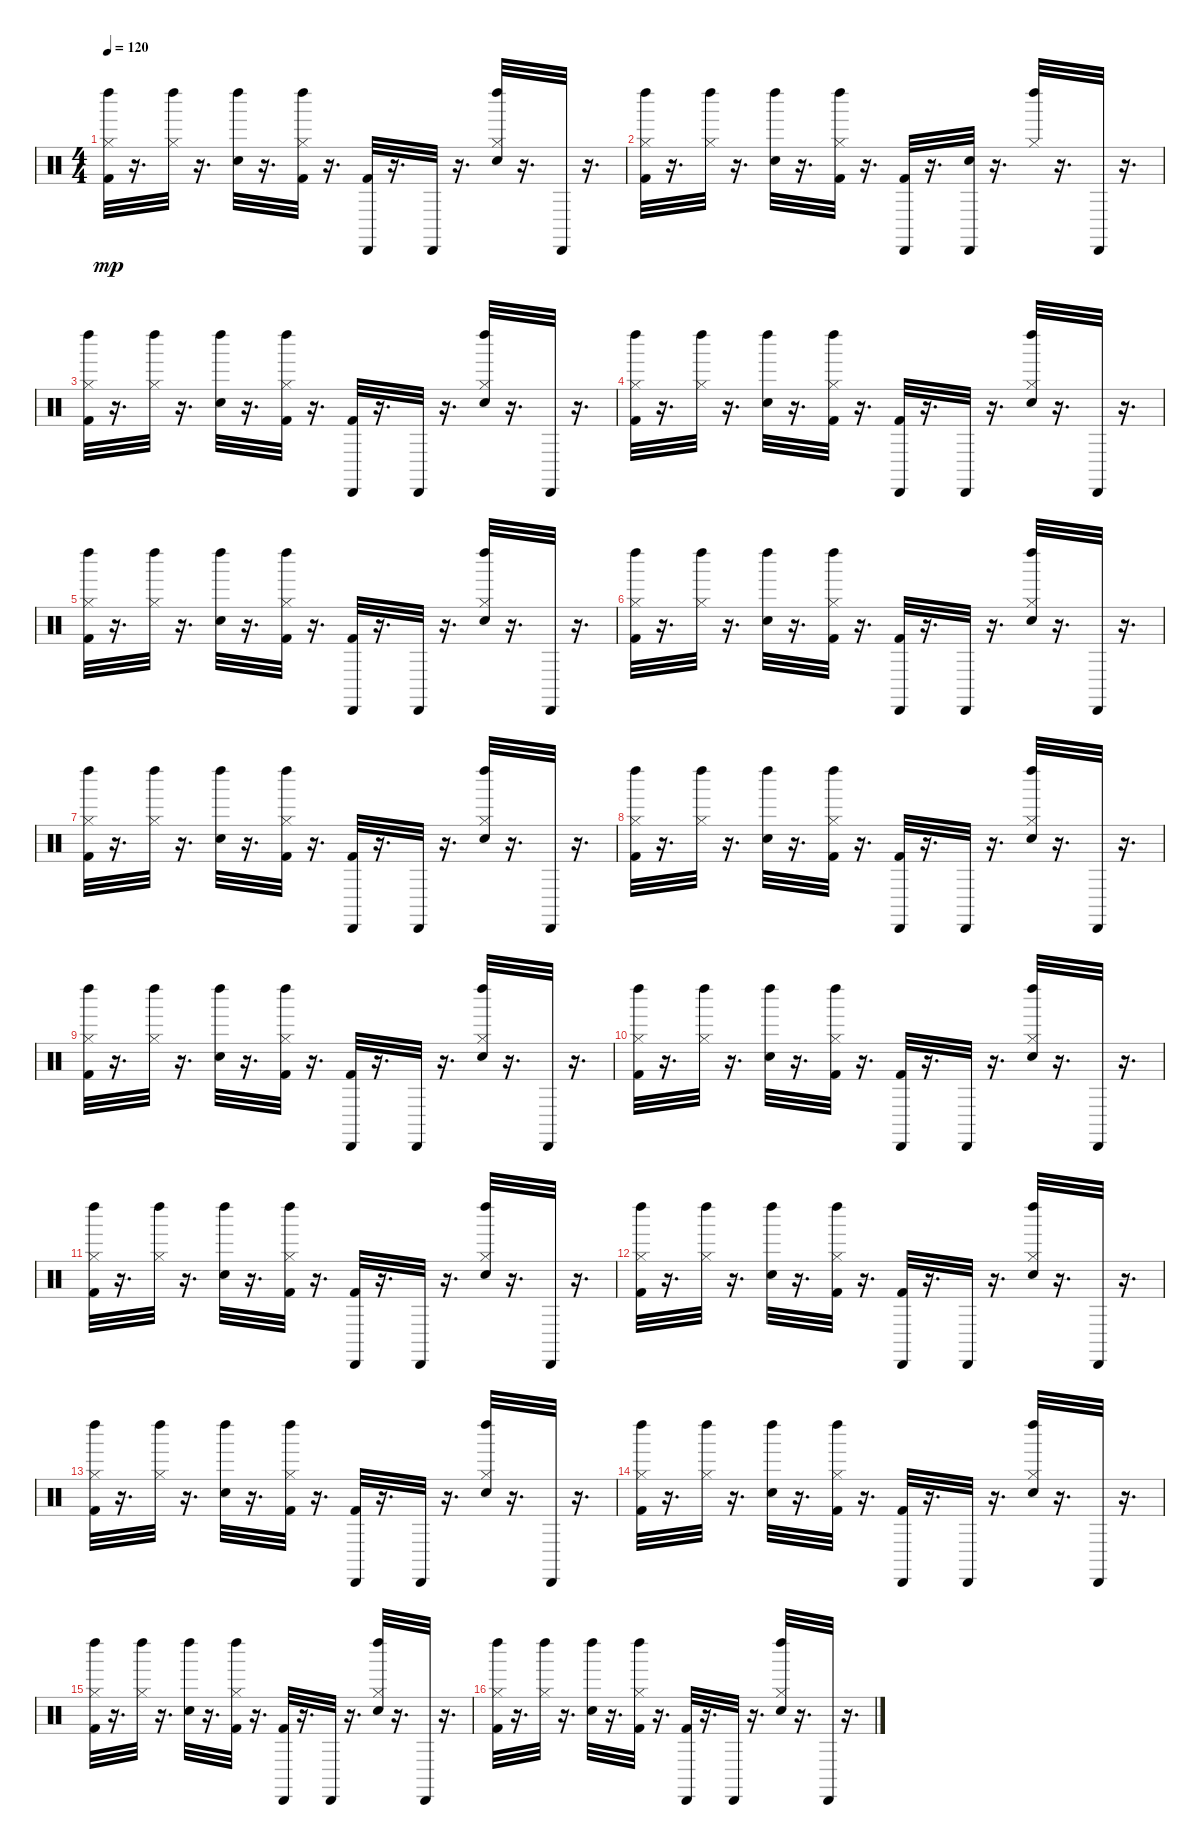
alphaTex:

\track "" {instrument percussion}
\staff {score}
\articulation defaults
\ts (4 4)
\tempo 120
\clef neutral
\ks c
("Left Maraca (hit)" "Hi-Hat (closed)" "Kick (hit) 2").32{dy mp} r.16{d} ("Left Maraca (hit)" "Hi-Hat (closed)").32 r.16{d} ("Left Maraca (hit)" "Electric Snare (hit)").32 r.16{d} ("Kick (hit) 2" "Left Maraca (hit)" "Hi-Hat (closed)").32 r.16{d} ("Kick (hit) 2" "Cabasa (hit)").32 r.16{d} "Cabasa (hit)".32 r.16{d} ("Hi-Hat (closed)" "Left Maraca (hit)" "Electric Snare (hit)").32 r.16{d} "Cabasa (hit)".32 r.16{d} |
("Left Maraca (hit)" "Hi-Hat (closed)" "Kick (hit) 2").32 r.16{d} ("Left Maraca (hit)" "Hi-Hat (closed)").32 r.16{d} ("Left Maraca (hit)" "Electric Snare (hit)").32 r.16{d} ("Kick (hit) 2" "Left Maraca (hit)" "Hi-Hat (closed)").32 r.16{d} ("Kick (hit) 2" "Cabasa (hit)").32 r.16{d} ("Cabasa (hit)" "Electric Snare (hit)").32 r.16{d} ("Hi-Hat (closed)" "Left Maraca (hit)").32 r.16{d} "Cabasa (hit)".32 r.16{d} |
("Left Maraca (hit)" "Hi-Hat (closed)" "Kick (hit) 2").32 r.16{d} ("Left Maraca (hit)" "Hi-Hat (closed)").32 r.16{d} ("Left Maraca (hit)" "Electric Snare (hit)").32 r.16{d} ("Kick (hit) 2" "Left Maraca (hit)" "Hi-Hat (closed)").32 r.16{d} ("Kick (hit) 2" "Cabasa (hit)").32 r.16{d} "Cabasa (hit)".32 r.16{d} ("Hi-Hat (closed)" "Left Maraca (hit)" "Electric Snare (hit)").32 r.16{d} "Cabasa (hit)".32 r.16{d} |
("Left Maraca (hit)" "Hi-Hat (closed)" "Kick (hit) 2").32 r.16{d} ("Left Maraca (hit)" "Hi-Hat (closed)").32 r.16{d} ("Left Maraca (hit)" "Electric Snare (hit)").32 r.16{d} ("Kick (hit) 2" "Left Maraca (hit)" "Hi-Hat (closed)").32 r.16{d} ("Kick (hit) 2" "Cabasa (hit)").32 r.16{d} "Cabasa (hit)".32 r.16{d} ("Hi-Hat (closed)" "Left Maraca (hit)" "Electric Snare (hit)").32 r.16{d} "Cabasa (hit)".32 r.16{d} |
("Left Maraca (hit)" "Hi-Hat (closed)" "Kick (hit) 2").32 r.16{d} ("Left Maraca (hit)" "Hi-Hat (closed)").32 r.16{d} ("Left Maraca (hit)" "Electric Snare (hit)").32 r.16{d} ("Kick (hit) 2" "Left Maraca (hit)" "Hi-Hat (closed)").32 r.16{d} ("Kick (hit) 2" "Cabasa (hit)").32 r.16{d} "Cabasa (hit)".32 r.16{d} ("Hi-Hat (closed)" "Left Maraca (hit)" "Electric Snare (hit)").32 r.16{d} "Cabasa (hit)".32 r.16{d} |
("Left Maraca (hit)" "Hi-Hat (closed)" "Kick (hit) 2").32 r.16{d} ("Left Maraca (hit)" "Hi-Hat (closed)").32 r.16{d} ("Left Maraca (hit)" "Electric Snare (hit)").32 r.16{d} ("Kick (hit) 2" "Left Maraca (hit)" "Hi-Hat (closed)").32 r.16{d} ("Kick (hit) 2" "Cabasa (hit)").32 r.16{d} "Cabasa (hit)".32 r.16{d} ("Hi-Hat (closed)" "Left Maraca (hit)" "Electric Snare (hit)").32 r.16{d} "Cabasa (hit)".32 r.16{d} |
("Left Maraca (hit)" "Hi-Hat (closed)" "Kick (hit) 2").32 r.16{d} ("Left Maraca (hit)" "Hi-Hat (closed)").32 r.16{d} ("Left Maraca (hit)" "Electric Snare (hit)").32 r.16{d} ("Kick (hit) 2" "Left Maraca (hit)" "Hi-Hat (closed)").32 r.16{d} ("Kick (hit) 2" "Cabasa (hit)").32 r.16{d} "Cabasa (hit)".32 r.16{d} ("Hi-Hat (closed)" "Left Maraca (hit)" "Electric Snare (hit)").32 r.16{d} "Cabasa (hit)".32 r.16{d} |
("Left Maraca (hit)" "Hi-Hat (closed)" "Kick (hit) 2").32 r.16{d} ("Left Maraca (hit)" "Hi-Hat (closed)").32 r.16{d} ("Left Maraca (hit)" "Electric Snare (hit)").32 r.16{d} ("Kick (hit) 2" "Left Maraca (hit)" "Hi-Hat (closed)").32 r.16{d} ("Kick (hit) 2" "Cabasa (hit)").32 r.16{d} "Cabasa (hit)".32 r.16{d} ("Hi-Hat (closed)" "Left Maraca (hit)" "Electric Snare (hit)").32 r.16{d} "Cabasa (hit)".32 r.16{d} |
("Left Maraca (hit)" "Hi-Hat (closed)" "Kick (hit) 2").32 r.16{d} ("Left Maraca (hit)" "Hi-Hat (closed)").32 r.16{d} ("Left Maraca (hit)" "Electric Snare (hit)").32 r.16{d} ("Kick (hit) 2" "Left Maraca (hit)" "Hi-Hat (closed)").32 r.16{d} ("Kick (hit) 2" "Cabasa (hit)").32 r.16{d} "Cabasa (hit)".32 r.16{d} ("Hi-Hat (closed)" "Left Maraca (hit)" "Electric Snare (hit)").32 r.16{d} "Cabasa (hit)".32 r.16{d} |
("Left Maraca (hit)" "Hi-Hat (closed)" "Kick (hit) 2").32 r.16{d} ("Left Maraca (hit)" "Hi-Hat (closed)").32 r.16{d} ("Left Maraca (hit)" "Electric Snare (hit)").32 r.16{d} ("Kick (hit) 2" "Left Maraca (hit)" "Hi-Hat (closed)").32 r.16{d} ("Kick (hit) 2" "Cabasa (hit)").32 r.16{d} "Cabasa (hit)".32 r.16{d} ("Hi-Hat (closed)" "Left Maraca (hit)" "Electric Snare (hit)").32 r.16{d} "Cabasa (hit)".32 r.16{d} |
("Left Maraca (hit)" "Hi-Hat (closed)" "Kick (hit) 2").32 r.16{d} ("Left Maraca (hit)" "Hi-Hat (closed)").32 r.16{d} ("Left Maraca (hit)" "Electric Snare (hit)").32 r.16{d} ("Kick (hit) 2" "Left Maraca (hit)" "Hi-Hat (closed)").32 r.16{d} ("Kick (hit) 2" "Cabasa (hit)").32 r.16{d} "Cabasa (hit)".32 r.16{d} ("Hi-Hat (closed)" "Left Maraca (hit)" "Electric Snare (hit)").32 r.16{d} "Cabasa (hit)".32 r.16{d} |
("Left Maraca (hit)" "Hi-Hat (closed)" "Kick (hit) 2").32 r.16{d} ("Left Maraca (hit)" "Hi-Hat (closed)").32 r.16{d} ("Left Maraca (hit)" "Electric Snare (hit)").32 r.16{d} ("Kick (hit) 2" "Left Maraca (hit)" "Hi-Hat (closed)").32 r.16{d} ("Kick (hit) 2" "Cabasa (hit)").32 r.16{d} "Cabasa (hit)".32 r.16{d} ("Hi-Hat (closed)" "Left Maraca (hit)" "Electric Snare (hit)").32 r.16{d} "Cabasa (hit)".32 r.16{d} |
("Left Maraca (hit)" "Hi-Hat (closed)" "Kick (hit) 2").32 r.16{d} ("Left Maraca (hit)" "Hi-Hat (closed)").32 r.16{d} ("Left Maraca (hit)" "Electric Snare (hit)").32 r.16{d} ("Kick (hit) 2" "Left Maraca (hit)" "Hi-Hat (closed)").32 r.16{d} ("Kick (hit) 2" "Cabasa (hit)").32 r.16{d} "Cabasa (hit)".32 r.16{d} ("Hi-Hat (closed)" "Left Maraca (hit)" "Electric Snare (hit)").32 r.16{d} "Cabasa (hit)".32 r.16{d} |
("Left Maraca (hit)" "Hi-Hat (closed)" "Kick (hit) 2").32 r.16{d} ("Left Maraca (hit)" "Hi-Hat (closed)").32 r.16{d} ("Left Maraca (hit)" "Electric Snare (hit)").32 r.16{d} ("Kick (hit) 2" "Left Maraca (hit)" "Hi-Hat (closed)").32 r.16{d} ("Kick (hit) 2" "Cabasa (hit)").32 r.16{d} "Cabasa (hit)".32 r.16{d} ("Hi-Hat (closed)" "Left Maraca (hit)" "Electric Snare (hit)").32 r.16{d} "Cabasa (hit)".32 r.16{d} |
("Left Maraca (hit)" "Hi-Hat (closed)" "Kick (hit) 2").32 r.16{d} ("Left Maraca (hit)" "Hi-Hat (closed)").32 r.16{d} ("Left Maraca (hit)" "Electric Snare (hit)").32 r.16{d} ("Kick (hit) 2" "Left Maraca (hit)" "Hi-Hat (closed)").32 r.16{d} ("Kick (hit) 2" "Cabasa (hit)").32 r.16{d} "Cabasa (hit)".32 r.16{d} ("Hi-Hat (closed)" "Left Maraca (hit)" "Electric Snare (hit)").32 r.16{d} "Cabasa (hit)".32 r.16{d} |
("Left Maraca (hit)" "Hi-Hat (closed)" "Kick (hit) 2").32 r.16{d} ("Left Maraca (hit)" "Hi-Hat (closed)").32 r.16{d} ("Left Maraca (hit)" "Electric Snare (hit)").32 r.16{d} ("Kick (hit) 2" "Left Maraca (hit)" "Hi-Hat (closed)").32 r.16{d} ("Kick (hit) 2" "Cabasa (hit)").32 r.16{d} "Cabasa (hit)".32 r.16{d} ("Hi-Hat (closed)" "Left Maraca (hit)" "Electric Snare (hit)").32 r.16{d} "Cabasa (hit)".32 r.16{d}
